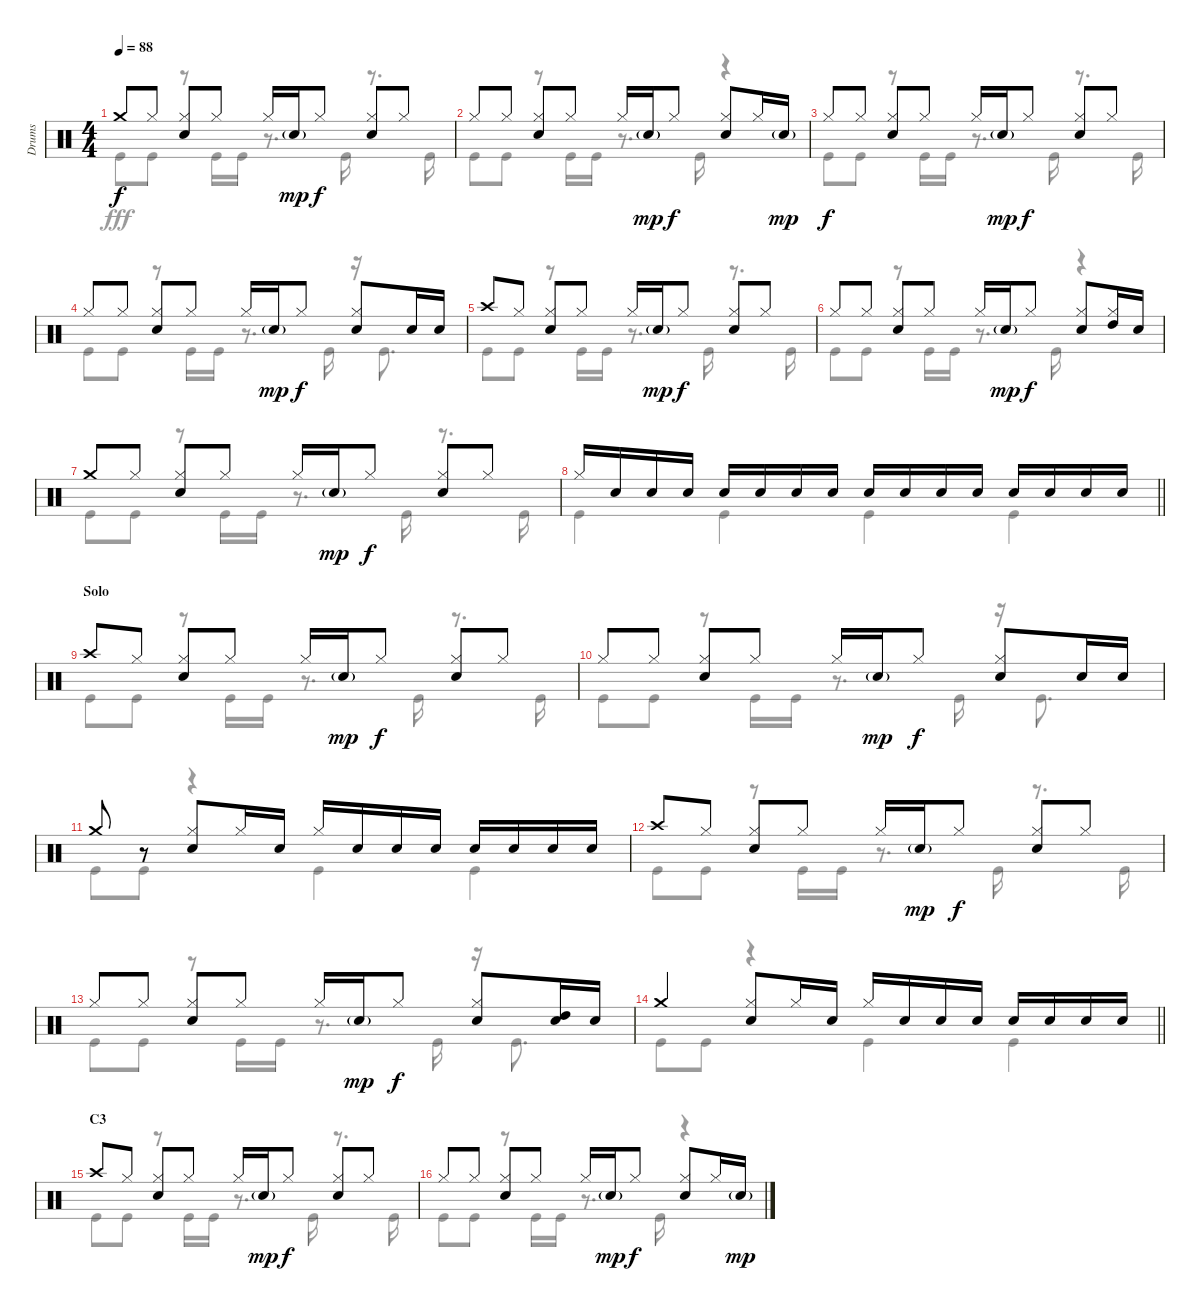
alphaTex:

\track ("Drums" "Drums") {instrument percussion}
\staff {score}
\articulation defaults
\voice
\ts (4 4)
\tempo 88
\clef neutral
\ks c "Crash medium (hit)".8{dy f} "Hi-Hat (closed)".8
("Hi-Hat (closed)" "Snare (hit) 2").8 "Hi-Hat (closed)".8 "Hi-Hat (closed)".16 "Snare (hit) 2"{g}.16{dy mp} "Hi-Hat (closed)".8{dy f} ("Hi-Hat (closed)" "Snare (hit) 2").8 "Hi-Hat (closed)".8 |
"Hi-Hat (closed)".8 "Hi-Hat (closed)".8 ("Hi-Hat (closed)" "Snare (hit) 2").8 "Hi-Hat (closed)".8 "Hi-Hat (closed)".16 "Snare (hit) 2"{g}.16{dy mp} "Hi-Hat (closed)".8{dy f} ("Hi-Hat (closed)" "Snare (hit) 2").8 "Hi-Hat (closed)".16 "Snare (hit) 2"{g}.16{dy mp} |
"Hi-Hat (closed)".8{dy f} "Hi-Hat (closed)".8 ("Hi-Hat (closed)" "Snare (hit) 2").8 "Hi-Hat (closed)".8 "Hi-Hat (closed)".16 "Snare (hit) 2"{g}.16{dy mp} "Hi-Hat (closed)".8{dy f} ("Hi-Hat (closed)" "Snare (hit) 2").8 "Hi-Hat (closed)".8 |
"Hi-Hat (closed)".8 "Hi-Hat (closed)".8 ("Hi-Hat (closed)" "Snare (hit) 2").8 "Hi-Hat (closed)".8 "Hi-Hat (closed)".16 "Snare (hit) 2"{g}.16{dy mp} "Hi-Hat (closed)".8{dy f} ("Hi-Hat (closed)" "Snare (hit) 2").8 "Snare (hit) 2".16 "Snare (hit) 2".16 |
"Crash high (hit)".8 "Hi-Hat (closed)".8 ("Hi-Hat (closed)" "Snare (hit) 2").8 "Hi-Hat (closed)".8 "Hi-Hat (closed)".16 "Snare (hit) 2"{g}.16{dy mp} "Hi-Hat (closed)".8{dy f} ("Hi-Hat (closed)" "Snare (hit) 2").8 "Hi-Hat (closed)".8 |
"Hi-Hat (closed)".8 "Hi-Hat (closed)".8 ("Hi-Hat (closed)" "Snare (hit) 2").8 "Hi-Hat (closed)".8 "Hi-Hat (closed)".16 "Snare (hit) 2"{g}.16{dy mp} "Hi-Hat (closed)".8{dy f} ("Hi-Hat (closed)" "Snare (hit) 2").8 ("Hi-Hat (closed)" "High Tom (hit)").16 "Snare (hit) 2".16 |
"Crash medium (hit)".8 "Hi-Hat (closed)".8 ("Hi-Hat (closed)" "Snare (hit) 2").8 "Hi-Hat (closed)".8 "Hi-Hat (closed)".16 "Snare (hit) 2"{g}.16{dy mp} "Hi-Hat (closed)".8{dy f} ("Hi-Hat (closed)" "Snare (hit) 2").8 "Hi-Hat (closed)".8 |
\barLineRight lightlight "Hi-Hat (closed)".16 "Snare (hit) 2".16 "Snare (hit) 2".16 "Snare (hit) 2".16 "Snare (hit) 2".16 "Snare (hit) 2".16 "Snare (hit) 2".16 "Snare (hit) 2".16 "Snare (hit) 2".16 "Snare (hit) 2".16 "Snare (hit) 2".16 "Snare (hit) 2".16 "Snare (hit) 2".16 "Snare (hit) 2".16 "Snare (hit) 2".16 "Snare (hit) 2".16
|
\section ("" "Solo")
"Crash high (hit)".8 "Hi-Hat (closed)".8 ("Hi-Hat (closed)" "Snare (hit) 2").8 "Hi-Hat (closed)".8 "Hi-Hat (closed)".16 "Snare (hit) 2"{g}.16{dy mp} "Hi-Hat (closed)".8{dy f} ("Hi-Hat (closed)" "Snare (hit) 2").8 "Hi-Hat (closed)".8 |
"Hi-Hat (closed)".8 "Hi-Hat (closed)".8 ("Hi-Hat (closed)" "Snare (hit) 2").8 "Hi-Hat (closed)".8 "Hi-Hat (closed)".16 "Snare (hit) 2"{g}.16{dy mp} "Hi-Hat (closed)".8{dy f} ("Hi-Hat (closed)" "Snare (hit) 2").8 "Snare (hit) 2".16 "Snare (hit) 2".16 |
"Crash medium (hit)".8 r.8 ("Hi-Hat (closed)" "Snare (hit) 2").8 "Hi-Hat (closed)".16 "Snare (hit) 2".16 "Hi-Hat (closed)".16 "Snare (hit) 2".16 "Snare (hit) 2".16 "Snare (hit) 2".16 "Snare (hit) 2".16 "Snare (hit) 2".16 "Snare (hit) 2".16 "Snare (hit) 2".16 |
"Crash high (hit)".8 "Hi-Hat (closed)".8 ("Hi-Hat (closed)" "Snare (hit) 2").8 "Hi-Hat (closed)".8 "Hi-Hat (closed)".16 "Snare (hit) 2"{g}.16{dy mp} "Hi-Hat (closed)".8{dy f} ("Hi-Hat (closed)" "Snare (hit) 2").8 "Hi-Hat (closed)".8 |
"Hi-Hat (closed)".8 "Hi-Hat (closed)".8 ("Hi-Hat (closed)" "Snare (hit) 2").8 "Hi-Hat (closed)".8 "Hi-Hat (closed)".16 "Snare (hit) 2"{g}.16{dy mp} "Hi-Hat (closed)".8{dy f} ("Hi-Hat (closed)" "Snare (hit) 2").8 ("High Tom (hit)" "Snare (hit) 2").16 "Snare (hit) 2".16 |
\barLineRight lightlight "Crash medium (hit)".4
("Hi-Hat (closed)" "Snare (hit) 2").8 "Hi-Hat (closed)".16 "Snare (hit) 2".16 "Hi-Hat (closed)".16 "Snare (hit) 2".16 "Snare (hit) 2".16 "Snare (hit) 2".16 "Snare (hit) 2".16 "Snare (hit) 2".16 "Snare (hit) 2".16 "Snare (hit) 2".16 |
\section ("" "C3")
"Crash high (hit)".8 "Hi-Hat (closed)".8 ("Hi-Hat (closed)" "Snare (hit) 2").8 "Hi-Hat (closed)".8 "Hi-Hat (closed)".16 "Snare (hit) 2"{g}.16{dy mp} "Hi-Hat (closed)".8{dy f} ("Hi-Hat (closed)" "Snare (hit) 2").8 "Hi-Hat (closed)".8 |
"Hi-Hat (closed)".8 "Hi-Hat (closed)".8 ("Hi-Hat (closed)" "Snare (hit) 2").8 "Hi-Hat (closed)".8 "Hi-Hat (closed)".16 "Snare (hit) 2"{g}.16{dy mp} "Hi-Hat (closed)".8{dy f} ("Hi-Hat (closed)" "Snare (hit) 2").8 "Hi-Hat (closed)".16 "Snare (hit) 2"{g}.16{dy mp}
\voice
\clef neutral
\ottava regular
\simile none
\ks c "Kick (hit)".8{dy fff} "Kick (hit)".8
r.8 "Kick (hit)".16 "Kick (hit)".16 r.8{d} "Kick (hit)".16 r.8{d} "Kick (hit)".16 |
"Kick (hit)".8 "Kick (hit)".8 r.8 "Kick (hit)".16 "Kick (hit)".16 r.8{d} "Kick (hit)".16 r.4 |
"Kick (hit)".8 "Kick (hit)".8 r.8 "Kick (hit)".16 "Kick (hit)".16 r.8{d} "Kick (hit)".16 r.8{d} "Kick (hit)".16 |
"Kick (hit)".8 "Kick (hit)".8 r.8 "Kick (hit)".16 "Kick (hit)".16 r.8{d} "Kick (hit)".16 r.16 "Kick (hit)".8{d} |
"Kick (hit)".8 "Kick (hit)".8 r.8 "Kick (hit)".16 "Kick (hit)".16 r.8{d} "Kick (hit)".16 r.8{d} "Kick (hit)".16 |
"Kick (hit)".8 "Kick (hit)".8 r.8 "Kick (hit)".16 "Kick (hit)".16 r.8{d} "Kick (hit)".16 r.4 |
"Kick (hit)".8 "Kick (hit)".8 r.8 "Kick (hit)".16 "Kick (hit)".16 r.8{d} "Kick (hit)".16 r.8{d} "Kick (hit)".16 |
\barLineRight lightlight "Kick (hit)".4 "Kick (hit)".4 "Kick (hit)".4 "Kick (hit)".4
|
"Kick (hit)".8 "Kick (hit)".8 r.8 "Kick (hit)".16 "Kick (hit)".16 r.8{d} "Kick (hit)".16 r.8{d} "Kick (hit)".16 |
"Kick (hit)".8 "Kick (hit)".8 r.8 "Kick (hit)".16 "Kick (hit)".16 r.8{d} "Kick (hit)".16 r.16 "Kick (hit)".8{d} |
"Kick (hit)".8 "Kick (hit)".8 r.4 "Kick (hit)".4 "Kick (hit)".4 |
"Kick (hit)".8 "Kick (hit)".8 r.8 "Kick (hit)".16 "Kick (hit)".16 r.8{d} "Kick (hit)".16 r.8{d} "Kick (hit)".16 |
"Kick (hit)".8 "Kick (hit)".8 r.8 "Kick (hit)".16 "Kick (hit)".16 r.8{d} "Kick (hit)".16 r.16 "Kick (hit)".8{d} |
\barLineRight lightlight "Kick (hit)".8 "Kick (hit)".8
r.4 "Kick (hit)".4 "Kick (hit)".4 |
"Kick (hit)".8 "Kick (hit)".8 r.8 "Kick (hit)".16 "Kick (hit)".16 r.8{d} "Kick (hit)".16 r.8{d} "Kick (hit)".16 |
"Kick (hit)".8 "Kick (hit)".8 r.8 "Kick (hit)".16 "Kick (hit)".16 r.8{d} "Kick (hit)".16 r.4
